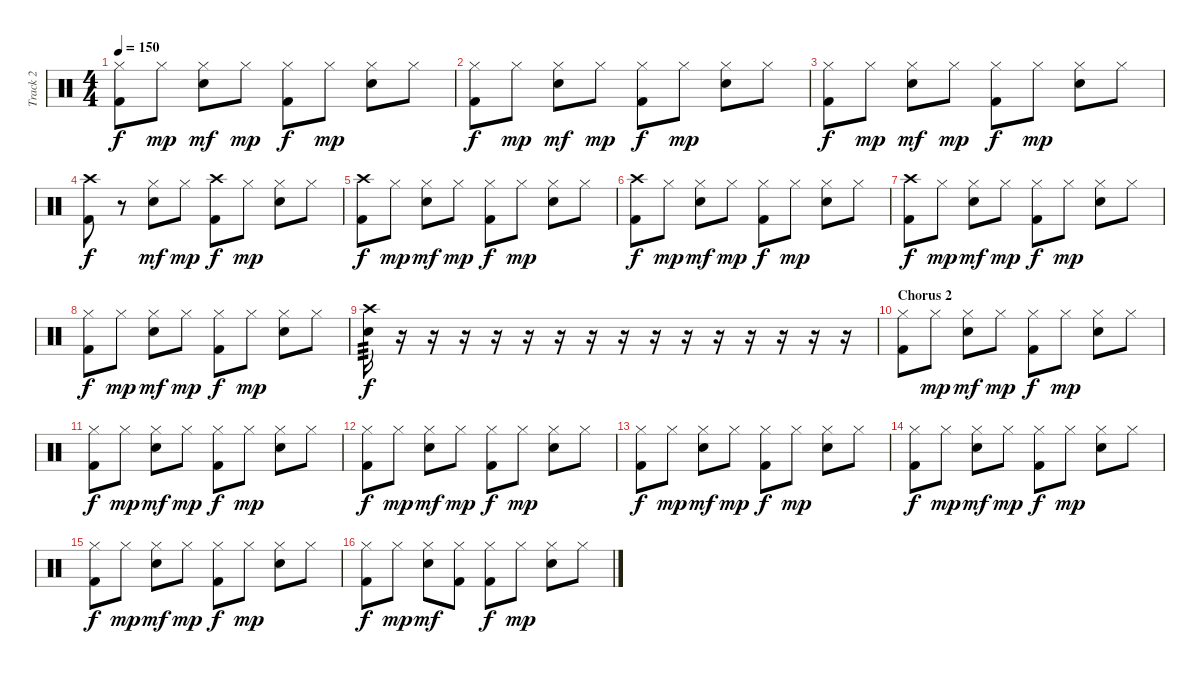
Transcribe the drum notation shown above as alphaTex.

\track ("Track 2" "Track 2") {instrument percussion}
\staff {score}
\articulation defaults
\ts (4 4)
\tempo 150
\clef neutral
\ks c
("Hi-Hat (closed)" "Kick (hit) 2").8{dy f} "Hi-Hat (closed)".8{dy mp} ("Hi-Hat (closed)" "Electric Snare (hit)").8{dy mf} "Hi-Hat (closed)".8{dy mp} ("Hi-Hat (closed)" "Kick (hit) 2").8{dy f} "Hi-Hat (closed)".8{dy mp} ("Hi-Hat (closed)" "Electric Snare (hit)").8 "Hi-Hat (closed)".8 |
("Hi-Hat (closed)" "Kick (hit) 2").8{dy f} "Hi-Hat (closed)".8{dy mp} ("Hi-Hat (closed)" "Electric Snare (hit)").8{dy mf} "Hi-Hat (closed)".8{dy mp} ("Hi-Hat (closed)" "Kick (hit) 2").8{dy f} "Hi-Hat (closed)".8{dy mp} ("Hi-Hat (closed)" "Electric Snare (hit)").8 "Hi-Hat (closed)".8 |
("Hi-Hat (closed)" "Kick (hit) 2").8{dy f} "Hi-Hat (closed)".8{dy mp} ("Hi-Hat (closed)" "Electric Snare (hit)").8{dy mf} "Hi-Hat (closed)".8{dy mp} ("Hi-Hat (closed)" "Kick (hit) 2").8{dy f} "Hi-Hat (closed)".8{dy mp} ("Hi-Hat (closed)" "Electric Snare (hit)").8 "Hi-Hat (closed)".8 |
("Crash high (hit)" "Kick (hit) 2").8{dy f} r.8 ("Hi-Hat (closed)" "Electric Snare (hit)").8{dy mf} "Hi-Hat (closed)".8{dy mp} ("Crash high (hit)" "Kick (hit) 2").8{dy f} "Hi-Hat (closed)".8{dy mp} ("Hi-Hat (closed)" "Electric Snare (hit)").8 "Hi-Hat (closed)".8 |
("Crash high (hit)" "Kick (hit) 2").8{dy f} "Hi-Hat (closed)".8{dy mp} ("Hi-Hat (closed)" "Electric Snare (hit)").8{dy mf} "Hi-Hat (closed)".8{dy mp} ("Hi-Hat (closed)" "Kick (hit) 2").8{dy f} "Hi-Hat (closed)".8{dy mp} ("Hi-Hat (closed)" "Electric Snare (hit)").8 "Hi-Hat (closed)".8 |
("Crash high (hit)" "Kick (hit) 2").8{dy f} "Hi-Hat (closed)".8{dy mp} ("Hi-Hat (closed)" "Electric Snare (hit)").8{dy mf} "Hi-Hat (closed)".8{dy mp} ("Hi-Hat (closed)" "Kick (hit) 2").8{dy f} "Hi-Hat (closed)".8{dy mp} ("Hi-Hat (closed)" "Electric Snare (hit)").8 "Hi-Hat (closed)".8 |
("Crash high (hit)" "Kick (hit) 2").8{dy f} "Hi-Hat (closed)".8{dy mp} ("Hi-Hat (closed)" "Electric Snare (hit)").8{dy mf} "Hi-Hat (closed)".8{dy mp} ("Hi-Hat (closed)" "Kick (hit) 2").8{dy f} "Hi-Hat (closed)".8{dy mp} ("Hi-Hat (closed)" "Electric Snare (hit)").8 "Hi-Hat (closed)".8 |
("Hi-Hat (closed)" "Kick (hit) 2").8{dy f} "Hi-Hat (closed)".8{dy mp} ("Hi-Hat (closed)" "Electric Snare (hit)").8{dy mf} "Hi-Hat (closed)".8{dy mp} ("Hi-Hat (closed)" "Kick (hit) 2").8{dy f} "Hi-Hat (closed)".8{dy mp} ("Hi-Hat (closed)" "Electric Snare (hit)").8 "Hi-Hat (closed)".8 |
("Crash high (hit)" "Electric Snare (hit)").16{tp 3 dy f} r.16 r.16 r.16 r.16 r.16 r.16 r.16 r.16 r.16 r.16 r.16 r.16 r.16 r.16 r.16 |
\section ("" "Chorus 2")
("Hi-Hat (closed)" "Kick (hit) 2").8 "Hi-Hat (closed)".8{dy mp} ("Hi-Hat (closed)" "Electric Snare (hit)").8{dy mf} "Hi-Hat (closed)".8{dy mp} ("Hi-Hat (closed)" "Kick (hit) 2").8{dy f} "Hi-Hat (closed)".8{dy mp} ("Hi-Hat (closed)" "Electric Snare (hit)").8 "Hi-Hat (closed)".8 |
("Hi-Hat (closed)" "Kick (hit) 2").8{dy f} "Hi-Hat (closed)".8{dy mp} ("Hi-Hat (closed)" "Electric Snare (hit)").8{dy mf} "Hi-Hat (closed)".8{dy mp} ("Hi-Hat (closed)" "Kick (hit) 2").8{dy f} "Hi-Hat (closed)".8{dy mp} ("Hi-Hat (closed)" "Electric Snare (hit)").8 "Hi-Hat (closed)".8 |
("Hi-Hat (closed)" "Kick (hit) 2").8{dy f} "Hi-Hat (closed)".8{dy mp} ("Hi-Hat (closed)" "Electric Snare (hit)").8{dy mf} "Hi-Hat (closed)".8{dy mp} ("Hi-Hat (closed)" "Kick (hit) 2").8{dy f} "Hi-Hat (closed)".8{dy mp} ("Hi-Hat (closed)" "Electric Snare (hit)").8 "Hi-Hat (closed)".8 |
("Hi-Hat (closed)" "Kick (hit) 2").8{dy f} "Hi-Hat (closed)".8{dy mp} ("Hi-Hat (closed)" "Electric Snare (hit)").8{dy mf} "Hi-Hat (closed)".8{dy mp} ("Hi-Hat (closed)" "Kick (hit) 2").8{dy f} "Hi-Hat (closed)".8{dy mp} ("Hi-Hat (closed)" "Electric Snare (hit)").8 "Hi-Hat (closed)".8 |
("Hi-Hat (closed)" "Kick (hit) 2").8{dy f} "Hi-Hat (closed)".8{dy mp} ("Hi-Hat (closed)" "Electric Snare (hit)").8{dy mf} "Hi-Hat (closed)".8{dy mp} ("Hi-Hat (closed)" "Kick (hit) 2").8{dy f} "Hi-Hat (closed)".8{dy mp} ("Hi-Hat (closed)" "Electric Snare (hit)").8 "Hi-Hat (closed)".8 |
("Hi-Hat (closed)" "Kick (hit) 2").8{dy f} "Hi-Hat (closed)".8{dy mp} ("Hi-Hat (closed)" "Electric Snare (hit)").8{dy mf} "Hi-Hat (closed)".8{dy mp} ("Hi-Hat (closed)" "Kick (hit) 2").8{dy f} "Hi-Hat (closed)".8{dy mp} ("Hi-Hat (closed)" "Electric Snare (hit)").8 "Hi-Hat (closed)".8 |
("Hi-Hat (closed)" "Kick (hit) 2").8{dy f} "Hi-Hat (closed)".8{dy mp} ("Hi-Hat (closed)" "Electric Snare (hit)").8{dy mf} ("Hi-Hat (closed)" "Kick (hit) 2").8 ("Hi-Hat (closed)" "Kick (hit) 2").8{dy f} "Hi-Hat (closed)".8{dy mp} ("Hi-Hat (closed)" "Electric Snare (hit)").8 "Hi-Hat (closed)".8
